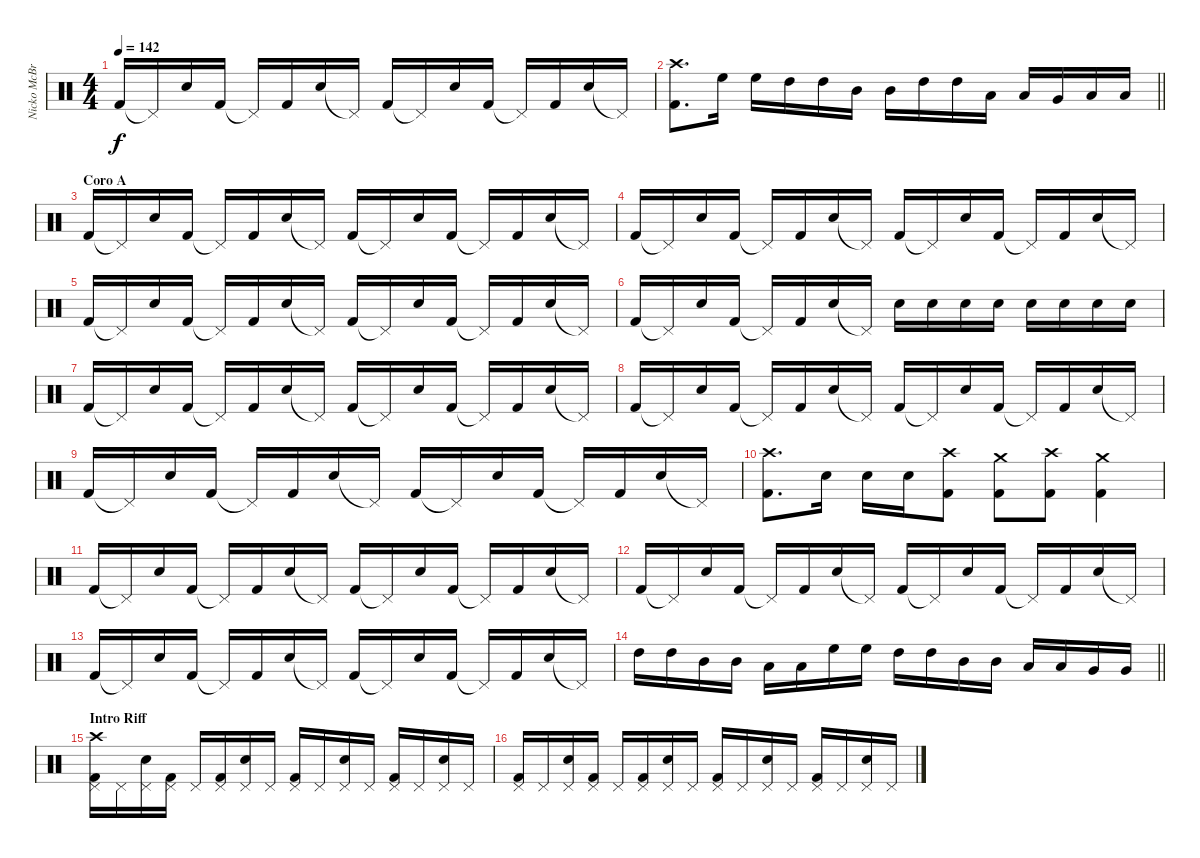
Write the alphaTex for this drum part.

\track ("Nicko McBrain" "Nicko McBr") {instrument percussion}
\staff {score}
\articulation defaults
\ts (4 4)
\tempo 142
\clef neutral
\ks c "Kick (hit) 2".16{dy f} "Pedal Hi-Hat (hit)"{t}.16 "Snare (hit) 2".16 "Kick (hit) 2".16 "Pedal Hi-Hat (hit)"{t}.16 "Kick (hit) 2".16 "Snare (hit) 2".16 "Pedal Hi-Hat (hit)"{t}.16 "Kick (hit) 2".16 "Pedal Hi-Hat (hit)"{t}.16 "Snare (hit) 2".16 "Kick (hit) 2".16 "Pedal Hi-Hat (hit)"{t}.16 "Kick (hit) 2".16 "Snare (hit) 2".16 "Pedal Hi-Hat (hit)"{t}.16
|
\barLineRight lightlight
("Kick (hit) 2" "Crash high (hit)").8{d} "High Floor Tom (hit)".16 "High Floor Tom (hit)".16 "High Tom (hit)".16 "High Tom (hit)".16 "Mid Tom (hit)".16 "Mid Tom (hit)".16 "High Tom (hit)".16 "High Tom (hit)".16 "Low Tom (hit)".16 "Low Tom (hit)".16 "Very Low Tom (hit)".16 "Low Floor Tom (hit)".16 "Low Floor Tom (hit)".16 |
\section ("" "Coro A")
"Kick (hit) 2".16 "Pedal Hi-Hat (hit)"{t}.16 "Snare (hit) 2".16 "Kick (hit) 2".16 "Pedal Hi-Hat (hit)"{t}.16 "Kick (hit) 2".16 "Snare (hit) 2".16 "Pedal Hi-Hat (hit)"{t}.16 "Kick (hit) 2".16 "Pedal Hi-Hat (hit)"{t}.16 "Snare (hit) 2".16 "Kick (hit) 2".16 "Pedal Hi-Hat (hit)"{t}.16 "Kick (hit) 2".16 "Snare (hit) 2".16 "Pedal Hi-Hat (hit)"{t}.16 |
"Kick (hit) 2".16 "Pedal Hi-Hat (hit)"{t}.16 "Snare (hit) 2".16 "Kick (hit) 2".16 "Pedal Hi-Hat (hit)"{t}.16 "Kick (hit) 2".16 "Snare (hit) 2".16 "Pedal Hi-Hat (hit)"{t}.16 "Kick (hit) 2".16 "Pedal Hi-Hat (hit)"{t}.16 "Snare (hit) 2".16 "Kick (hit) 2".16 "Pedal Hi-Hat (hit)"{t}.16 "Kick (hit) 2".16 "Snare (hit) 2".16 "Pedal Hi-Hat (hit)"{t}.16 |
"Kick (hit) 2".16 "Pedal Hi-Hat (hit)"{t}.16 "Snare (hit) 2".16 "Kick (hit) 2".16 "Pedal Hi-Hat (hit)"{t}.16 "Kick (hit) 2".16 "Snare (hit) 2".16 "Pedal Hi-Hat (hit)"{t}.16 "Kick (hit) 2".16 "Pedal Hi-Hat (hit)"{t}.16 "Snare (hit) 2".16 "Kick (hit) 2".16 "Pedal Hi-Hat (hit)"{t}.16 "Kick (hit) 2".16 "Snare (hit) 2".16 "Pedal Hi-Hat (hit)"{t}.16 |
"Kick (hit) 2".16 "Pedal Hi-Hat (hit)"{t}.16 "Snare (hit) 2".16 "Kick (hit) 2".16 "Pedal Hi-Hat (hit)"{t}.16 "Kick (hit) 2".16 "Snare (hit) 2".16 "Pedal Hi-Hat (hit)"{t}.16 "Snare (hit) 2".16 "Snare (hit) 2".16 "Snare (hit) 2".16 "Snare (hit) 2".16 "Snare (hit) 2".16 "Snare (hit) 2".16 "Snare (hit) 2".16 "Snare (hit) 2".16 |
"Kick (hit) 2".16 "Pedal Hi-Hat (hit)"{t}.16 "Snare (hit) 2".16 "Kick (hit) 2".16 "Pedal Hi-Hat (hit)"{t}.16 "Kick (hit) 2".16 "Snare (hit) 2".16 "Pedal Hi-Hat (hit)"{t}.16 "Kick (hit) 2".16 "Pedal Hi-Hat (hit)"{t}.16 "Snare (hit) 2".16 "Kick (hit) 2".16 "Pedal Hi-Hat (hit)"{t}.16 "Kick (hit) 2".16 "Snare (hit) 2".16 "Pedal Hi-Hat (hit)"{t}.16 |
"Kick (hit) 2".16 "Pedal Hi-Hat (hit)"{t}.16 "Snare (hit) 2".16 "Kick (hit) 2".16 "Pedal Hi-Hat (hit)"{t}.16 "Kick (hit) 2".16 "Snare (hit) 2".16 "Pedal Hi-Hat (hit)"{t}.16 "Kick (hit) 2".16 "Pedal Hi-Hat (hit)"{t}.16 "Snare (hit) 2".16 "Kick (hit) 2".16 "Pedal Hi-Hat (hit)"{t}.16 "Kick (hit) 2".16 "Snare (hit) 2".16 "Pedal Hi-Hat (hit)"{t}.16 |
"Kick (hit) 2".16 "Pedal Hi-Hat (hit)"{t}.16 "Snare (hit) 2".16 "Kick (hit) 2".16 "Pedal Hi-Hat (hit)"{t}.16 "Kick (hit) 2".16 "Snare (hit) 2".16 "Pedal Hi-Hat (hit)"{t}.16 "Kick (hit) 2".16 "Pedal Hi-Hat (hit)"{t}.16 "Snare (hit) 2".16 "Kick (hit) 2".16 "Pedal Hi-Hat (hit)"{t}.16 "Kick (hit) 2".16 "Snare (hit) 2".16 "Pedal Hi-Hat (hit)"{t}.16 |
("Kick (hit) 2" "Crash high (hit)").8{d} "Snare (hit) 2".16 "Snare (hit) 2".16 "Snare (hit) 2".16 ("Kick (hit) 2" "Crash high (hit)").8 ("Kick (hit) 2" "Crash medium (hit)").8 ("Kick (hit) 2" "Crash high (hit)").8 ("Kick (hit) 2" "Crash medium (hit)").4 |
"Kick (hit) 2".16 "Pedal Hi-Hat (hit)"{t}.16 "Snare (hit) 2".16 "Kick (hit) 2".16 "Pedal Hi-Hat (hit)"{t}.16 "Kick (hit) 2".16 "Snare (hit) 2".16 "Pedal Hi-Hat (hit)"{t}.16 "Kick (hit) 2".16 "Pedal Hi-Hat (hit)"{t}.16 "Snare (hit) 2".16 "Kick (hit) 2".16 "Pedal Hi-Hat (hit)"{t}.16 "Kick (hit) 2".16 "Snare (hit) 2".16 "Pedal Hi-Hat (hit)"{t}.16 |
"Kick (hit) 2".16 "Pedal Hi-Hat (hit)"{t}.16 "Snare (hit) 2".16 "Kick (hit) 2".16 "Pedal Hi-Hat (hit)"{t}.16 "Kick (hit) 2".16 "Snare (hit) 2".16 "Pedal Hi-Hat (hit)"{t}.16 "Kick (hit) 2".16 "Pedal Hi-Hat (hit)"{t}.16 "Snare (hit) 2".16 "Kick (hit) 2".16 "Pedal Hi-Hat (hit)"{t}.16 "Kick (hit) 2".16 "Snare (hit) 2".16 "Pedal Hi-Hat (hit)"{t}.16 |
"Kick (hit) 2".16 "Pedal Hi-Hat (hit)"{t}.16 "Snare (hit) 2".16 "Kick (hit) 2".16 "Pedal Hi-Hat (hit)"{t}.16 "Kick (hit) 2".16 "Snare (hit) 2".16 "Pedal Hi-Hat (hit)"{t}.16 "Kick (hit) 2".16 "Pedal Hi-Hat (hit)"{t}.16 "Snare (hit) 2".16 "Kick (hit) 2".16 "Pedal Hi-Hat (hit)"{t}.16 "Kick (hit) 2".16 "Snare (hit) 2".16 "Pedal Hi-Hat (hit)"{t}.16 |
\barLineRight lightlight "High Tom (hit)".16 "High Tom (hit)".16 "Mid Tom (hit)".16 "Mid Tom (hit)".16 "Low Tom (hit)".16 "Low Tom (hit)".16 "High Floor Tom (hit)".16 "High Floor Tom (hit)".16 "High Tom (hit)".16 "High Tom (hit)".16 "Mid Tom (hit)".16 "Mid Tom (hit)".16 "Low Tom (hit)".16 "Low Tom (hit)".16 "Very Low Tom (hit)".16 "Very Low Tom (hit)".16
|
\section ("" "Intro Riff")
("Kick (hit) 2" "Pedal Hi-Hat (hit)" "Crash high (hit)").16 "Pedal Hi-Hat (hit)".16 ("Snare (hit) 2" "Pedal Hi-Hat (hit)").16 ("Kick (hit) 2" "Pedal Hi-Hat (hit)").16 "Pedal Hi-Hat (hit)".16 ("Kick (hit) 2" "Pedal Hi-Hat (hit)").16 ("Snare (hit) 2" "Pedal Hi-Hat (hit)").16 "Pedal Hi-Hat (hit)".16 ("Kick (hit) 2" "Pedal Hi-Hat (hit)").16 "Pedal Hi-Hat (hit)".16 ("Snare (hit) 2" "Pedal Hi-Hat (hit)").16 "Pedal Hi-Hat (hit)".16 ("Kick (hit) 2" "Pedal Hi-Hat (hit)").16 "Pedal Hi-Hat (hit)".16 ("Snare (hit) 2" "Pedal Hi-Hat (hit)").16 "Pedal Hi-Hat (hit)".16 |
("Kick (hit) 2" "Pedal Hi-Hat (hit)").16 "Pedal Hi-Hat (hit)".16 ("Snare (hit) 2" "Pedal Hi-Hat (hit)").16 ("Kick (hit) 2" "Pedal Hi-Hat (hit)").16 "Pedal Hi-Hat (hit)".16 ("Kick (hit) 2" "Pedal Hi-Hat (hit)").16 ("Snare (hit) 2" "Pedal Hi-Hat (hit)").16 "Pedal Hi-Hat (hit)".16 ("Kick (hit) 2" "Pedal Hi-Hat (hit)").16 "Pedal Hi-Hat (hit)".16 ("Snare (hit) 2" "Pedal Hi-Hat (hit)").16 "Pedal Hi-Hat (hit)".16 ("Kick (hit) 2" "Pedal Hi-Hat (hit)").16 "Pedal Hi-Hat (hit)".16 ("Snare (hit) 2" "Pedal Hi-Hat (hit)").16 "Pedal Hi-Hat (hit)".16
